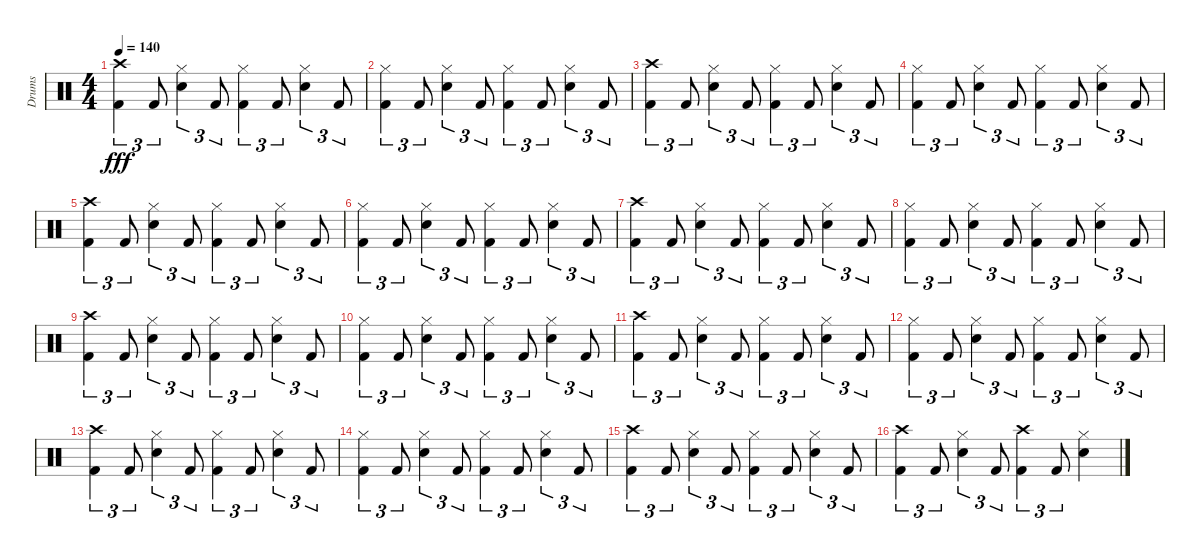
\track ("Drums" "Drums") {instrument percussion}
\staff {score}
\articulation defaults
\ts (4 4)
\tempo 140
\clef neutral
\ks c
("Crash high (hit)" "Kick (hit) 2").4{tu (3 2) dy fff} "Kick (hit) 2".8{tu (3 2)} ("Hi-Hat (closed)" "Snare (hit) 2").4{tu (3 2)} "Kick (hit) 2".8{tu (3 2)} ("Kick (hit) 2" "Hi-Hat (closed)").4{tu (3 2)} "Kick (hit) 2".8{tu (3 2)} ("Hi-Hat (closed)" "Snare (hit) 2").4{tu (3 2)} "Kick (hit) 2".8{tu (3 2)} |
("Kick (hit) 2" "Hi-Hat (closed)").4{tu (3 2)} "Kick (hit) 2".8{tu (3 2)} ("Hi-Hat (closed)" "Snare (hit) 2").4{tu (3 2)} "Kick (hit) 2".8{tu (3 2)} ("Kick (hit) 2" "Hi-Hat (closed)").4{tu (3 2)} "Kick (hit) 2".8{tu (3 2)} ("Hi-Hat (closed)" "Snare (hit) 2").4{tu (3 2)} "Kick (hit) 2".8{tu (3 2)} |
("Crash high (hit)" "Kick (hit) 2").4{tu (3 2)} "Kick (hit) 2".8{tu (3 2)} ("Hi-Hat (closed)" "Snare (hit) 2").4{tu (3 2)} "Kick (hit) 2".8{tu (3 2)} ("Kick (hit) 2" "Hi-Hat (closed)").4{tu (3 2)} "Kick (hit) 2".8{tu (3 2)} ("Hi-Hat (closed)" "Snare (hit) 2").4{tu (3 2)} "Kick (hit) 2".8{tu (3 2)} |
("Kick (hit) 2" "Hi-Hat (closed)").4{tu (3 2)} "Kick (hit) 2".8{tu (3 2)} ("Hi-Hat (closed)" "Snare (hit) 2").4{tu (3 2)} "Kick (hit) 2".8{tu (3 2)} ("Kick (hit) 2" "Hi-Hat (closed)").4{tu (3 2)} "Kick (hit) 2".8{tu (3 2)} ("Hi-Hat (closed)" "Snare (hit) 2").4{tu (3 2)} "Kick (hit) 2".8{tu (3 2)} |
("Crash high (hit)" "Kick (hit) 2").4{tu (3 2)} "Kick (hit) 2".8{tu (3 2)} ("Hi-Hat (closed)" "Snare (hit) 2").4{tu (3 2)} "Kick (hit) 2".8{tu (3 2)} ("Kick (hit) 2" "Hi-Hat (closed)").4{tu (3 2)} "Kick (hit) 2".8{tu (3 2)} ("Hi-Hat (closed)" "Snare (hit) 2").4{tu (3 2)} "Kick (hit) 2".8{tu (3 2)} |
("Kick (hit) 2" "Hi-Hat (closed)").4{tu (3 2)} "Kick (hit) 2".8{tu (3 2)} ("Hi-Hat (closed)" "Snare (hit) 2").4{tu (3 2)} "Kick (hit) 2".8{tu (3 2)} ("Kick (hit) 2" "Hi-Hat (closed)").4{tu (3 2)} "Kick (hit) 2".8{tu (3 2)} ("Hi-Hat (closed)" "Snare (hit) 2").4{tu (3 2)} "Kick (hit) 2".8{tu (3 2)} |
("Crash high (hit)" "Kick (hit) 2").4{tu (3 2)} "Kick (hit) 2".8{tu (3 2)} ("Hi-Hat (closed)" "Snare (hit) 2").4{tu (3 2)} "Kick (hit) 2".8{tu (3 2)} ("Kick (hit) 2" "Hi-Hat (closed)").4{tu (3 2)} "Kick (hit) 2".8{tu (3 2)} ("Hi-Hat (closed)" "Snare (hit) 2").4{tu (3 2)} "Kick (hit) 2".8{tu (3 2)} |
("Kick (hit) 2" "Hi-Hat (closed)").4{tu (3 2)} "Kick (hit) 2".8{tu (3 2)} ("Hi-Hat (closed)" "Snare (hit) 2").4{tu (3 2)} "Kick (hit) 2".8{tu (3 2)} ("Kick (hit) 2" "Hi-Hat (closed)").4{tu (3 2)} "Kick (hit) 2".8{tu (3 2)} ("Hi-Hat (closed)" "Snare (hit) 2").4{tu (3 2)} "Kick (hit) 2".8{tu (3 2)} |
("Crash high (hit)" "Kick (hit) 2").4{tu (3 2)} "Kick (hit) 2".8{tu (3 2)} ("Hi-Hat (closed)" "Snare (hit) 2").4{tu (3 2)} "Kick (hit) 2".8{tu (3 2)} ("Kick (hit) 2" "Hi-Hat (closed)").4{tu (3 2)} "Kick (hit) 2".8{tu (3 2)} ("Hi-Hat (closed)" "Snare (hit) 2").4{tu (3 2)} "Kick (hit) 2".8{tu (3 2)} |
("Kick (hit) 2" "Hi-Hat (closed)").4{tu (3 2)} "Kick (hit) 2".8{tu (3 2)} ("Hi-Hat (closed)" "Snare (hit) 2").4{tu (3 2)} "Kick (hit) 2".8{tu (3 2)} ("Kick (hit) 2" "Hi-Hat (closed)").4{tu (3 2)} "Kick (hit) 2".8{tu (3 2)} ("Hi-Hat (closed)" "Snare (hit) 2").4{tu (3 2)} "Kick (hit) 2".8{tu (3 2)} |
("Crash high (hit)" "Kick (hit) 2").4{tu (3 2)} "Kick (hit) 2".8{tu (3 2)} ("Hi-Hat (closed)" "Snare (hit) 2").4{tu (3 2)} "Kick (hit) 2".8{tu (3 2)} ("Kick (hit) 2" "Hi-Hat (closed)").4{tu (3 2)} "Kick (hit) 2".8{tu (3 2)} ("Hi-Hat (closed)" "Snare (hit) 2").4{tu (3 2)} "Kick (hit) 2".8{tu (3 2)} |
("Kick (hit) 2" "Hi-Hat (closed)").4{tu (3 2)} "Kick (hit) 2".8{tu (3 2)} ("Hi-Hat (closed)" "Snare (hit) 2").4{tu (3 2)} "Kick (hit) 2".8{tu (3 2)} ("Kick (hit) 2" "Hi-Hat (closed)").4{tu (3 2)} "Kick (hit) 2".8{tu (3 2)} ("Hi-Hat (closed)" "Snare (hit) 2").4{tu (3 2)} "Kick (hit) 2".8{tu (3 2)} |
("Crash high (hit)" "Kick (hit) 2").4{tu (3 2)} "Kick (hit) 2".8{tu (3 2)} ("Hi-Hat (closed)" "Snare (hit) 2").4{tu (3 2)} "Kick (hit) 2".8{tu (3 2)} ("Kick (hit) 2" "Hi-Hat (closed)").4{tu (3 2)} "Kick (hit) 2".8{tu (3 2)} ("Hi-Hat (closed)" "Snare (hit) 2").4{tu (3 2)} "Kick (hit) 2".8{tu (3 2)} |
("Kick (hit) 2" "Hi-Hat (closed)").4{tu (3 2)} "Kick (hit) 2".8{tu (3 2)} ("Hi-Hat (closed)" "Snare (hit) 2").4{tu (3 2)} "Kick (hit) 2".8{tu (3 2)} ("Kick (hit) 2" "Hi-Hat (closed)").4{tu (3 2)} "Kick (hit) 2".8{tu (3 2)} ("Hi-Hat (closed)" "Snare (hit) 2").4{tu (3 2)} "Kick (hit) 2".8{tu (3 2)} |
("Crash high (hit)" "Kick (hit) 2").4{tu (3 2)} "Kick (hit) 2".8{tu (3 2)} ("Hi-Hat (closed)" "Snare (hit) 2").4{tu (3 2)} "Kick (hit) 2".8{tu (3 2)} ("Kick (hit) 2" "Hi-Hat (closed)").4{tu (3 2)} "Kick (hit) 2".8{tu (3 2)} ("Hi-Hat (closed)" "Snare (hit) 2").4{tu (3 2)} "Kick (hit) 2".8{tu (3 2)} |
("Kick (hit) 2" "Crash high (hit)").4{tu (3 2)} "Kick (hit) 2".8{tu (3 2)} ("Hi-Hat (closed)" "Snare (hit) 2").4{tu (3 2)} "Kick (hit) 2".8{tu (3 2)} ("Kick (hit) 2" "Crash high (hit)").4{tu (3 2)} "Kick (hit) 2".8{tu (3 2)} ("Hi-Hat (closed)" "Snare (hit) 2").4
